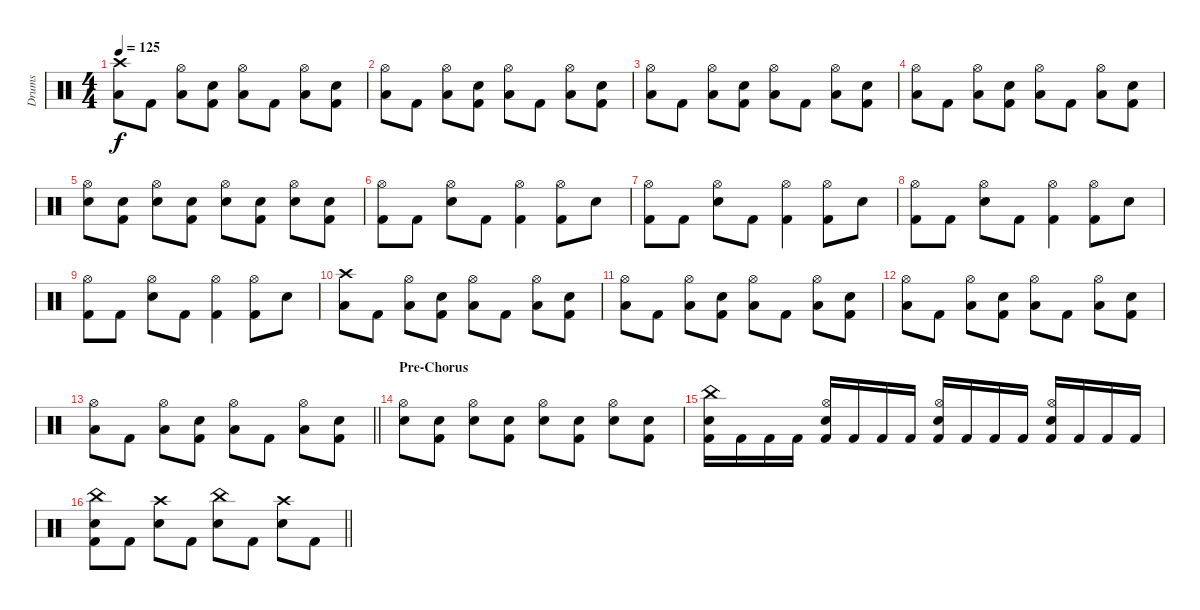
\track ("Drums" "Drums") {instrument percussion}
\staff {score}
\articulation defaults
\ts (4 4)
\tempo 125
\clef neutral
\ks c
("Crash high (hit)" "Low Tom (hit)").8{dy f} "Kick (hit) 2".8 ("Hi-Hat (open)" "Low Tom (hit)").8 ("Kick (hit) 2" "Electric Snare (hit)").8 ("Hi-Hat (open)" "Low Tom (hit)").8 "Kick (hit) 2".8 ("Hi-Hat (open)" "Low Tom (hit)").8 ("Kick (hit) 2" "Electric Snare (hit)").8 |
("Hi-Hat (open)" "Low Tom (hit)").8 "Kick (hit) 2".8 ("Hi-Hat (open)" "Low Tom (hit)").8 ("Kick (hit) 2" "Electric Snare (hit)").8 ("Hi-Hat (open)" "Low Tom (hit)").8 "Kick (hit) 2".8 ("Hi-Hat (open)" "Low Tom (hit)").8 ("Kick (hit) 2" "Electric Snare (hit)").8 |
("Hi-Hat (open)" "Low Tom (hit)").8 "Kick (hit) 2".8 ("Hi-Hat (open)" "Low Tom (hit)").8 ("Kick (hit) 2" "Electric Snare (hit)").8 ("Hi-Hat (open)" "Low Tom (hit)").8 "Kick (hit) 2".8 ("Hi-Hat (open)" "Low Tom (hit)").8 ("Kick (hit) 2" "Electric Snare (hit)").8 |
("Hi-Hat (open)" "Low Tom (hit)").8 "Kick (hit) 2".8 ("Hi-Hat (open)" "Low Tom (hit)").8 ("Kick (hit) 2" "Electric Snare (hit)").8 ("Hi-Hat (open)" "Low Tom (hit)").8 "Kick (hit) 2".8 ("Hi-Hat (open)" "Low Tom (hit)").8 ("Kick (hit) 2" "Electric Snare (hit)").8 |
("Hi-Hat (open)" "Electric Snare (hit)").8 ("Kick (hit) 2" "Electric Snare (hit)").8 ("Hi-Hat (open)" "Electric Snare (hit)").8 ("Kick (hit) 2" "Electric Snare (hit)").8 ("Hi-Hat (open)" "Electric Snare (hit)").8 ("Kick (hit) 2" "Electric Snare (hit)").8 ("Hi-Hat (open)" "Electric Snare (hit)").8 ("Kick (hit) 2" "Electric Snare (hit)").8 |
("Hi-Hat (open)" "Kick (hit) 2").8 "Kick (hit) 2".8 ("Hi-Hat (open)" "Electric Snare (hit)").8 "Kick (hit) 2".8 ("Hi-Hat (open)" "Kick (hit) 2").4 ("Hi-Hat (open)" "Kick (hit) 2").8 "Electric Snare (hit)".8 |
("Hi-Hat (open)" "Kick (hit) 2").8 "Kick (hit) 2".8 ("Hi-Hat (open)" "Electric Snare (hit)").8 "Kick (hit) 2".8 ("Hi-Hat (open)" "Kick (hit) 2").4 ("Hi-Hat (open)" "Kick (hit) 2").8 "Electric Snare (hit)".8 |
("Hi-Hat (open)" "Kick (hit) 2").8 "Kick (hit) 2".8 ("Hi-Hat (open)" "Electric Snare (hit)").8 "Kick (hit) 2".8 ("Hi-Hat (open)" "Kick (hit) 2").4 ("Hi-Hat (open)" "Kick (hit) 2").8 "Electric Snare (hit)".8 |
("Hi-Hat (open)" "Kick (hit) 2").8 "Kick (hit) 2".8 ("Hi-Hat (open)" "Electric Snare (hit)").8 "Kick (hit) 2".8 ("Hi-Hat (open)" "Kick (hit) 2").4 ("Hi-Hat (open)" "Kick (hit) 2").8 "Electric Snare (hit)".8 |
("Crash high (hit)" "Low Tom (hit)").8 "Kick (hit) 2".8 ("Hi-Hat (open)" "Low Tom (hit)").8 ("Kick (hit) 2" "Electric Snare (hit)").8 ("Hi-Hat (open)" "Low Tom (hit)").8 "Kick (hit) 2".8 ("Hi-Hat (open)" "Low Tom (hit)").8 ("Kick (hit) 2" "Electric Snare (hit)").8 |
("Hi-Hat (open)" "Low Tom (hit)").8 "Kick (hit) 2".8 ("Hi-Hat (open)" "Low Tom (hit)").8 ("Kick (hit) 2" "Electric Snare (hit)").8 ("Hi-Hat (open)" "Low Tom (hit)").8 "Kick (hit) 2".8 ("Hi-Hat (open)" "Low Tom (hit)").8 ("Kick (hit) 2" "Electric Snare (hit)").8 |
("Hi-Hat (open)" "Low Tom (hit)").8 "Kick (hit) 2".8 ("Hi-Hat (open)" "Low Tom (hit)").8 ("Kick (hit) 2" "Electric Snare (hit)").8 ("Hi-Hat (open)" "Low Tom (hit)").8 "Kick (hit) 2".8 ("Hi-Hat (open)" "Low Tom (hit)").8 ("Kick (hit) 2" "Electric Snare (hit)").8 |
\barLineRight lightlight
("Hi-Hat (open)" "Low Tom (hit)").8 "Kick (hit) 2".8 ("Hi-Hat (open)" "Low Tom (hit)").8 ("Kick (hit) 2" "Electric Snare (hit)").8 ("Hi-Hat (open)" "Low Tom (hit)").8 "Kick (hit) 2".8 ("Hi-Hat (open)" "Low Tom (hit)").8 ("Kick (hit) 2" "Electric Snare (hit)").8 |
\section ("" "Pre-Chorus")
("Hi-Hat (open)" "Electric Snare (hit)").8 ("Kick (hit) 2" "Electric Snare (hit)").8 ("Hi-Hat (open)" "Electric Snare (hit)").8 ("Kick (hit) 2" "Electric Snare (hit)").8 ("Hi-Hat (open)" "Electric Snare (hit)").8 ("Kick (hit) 2" "Electric Snare (hit)").8 ("Hi-Hat (open)" "Electric Snare (hit)").8 ("Kick (hit) 2" "Electric Snare (hit)").8 |
("China (hit)" "Kick (hit) 2" "Electric Snare (hit)").16 "Kick (hit) 2".16 "Kick (hit) 2".16 "Kick (hit) 2".16 ("Hi-Hat (open)" "Kick (hit) 2" "Electric Snare (hit)").16 "Kick (hit) 2".16 "Kick (hit) 2".16 "Kick (hit) 2".16 ("Hi-Hat (open)" "Kick (hit) 2" "Electric Snare (hit)").16 "Kick (hit) 2".16 "Kick (hit) 2".16 "Kick (hit) 2".16 ("Hi-Hat (open)" "Kick (hit) 2" "Electric Snare (hit)").16 "Kick (hit) 2".16 "Kick (hit) 2".16 "Kick (hit) 2".16 |
\barLineRight lightlight
("China (hit)" "Kick (hit) 2" "Electric Snare (hit)").8 "Kick (hit) 2".8 ("Crash high (hit)" "Electric Snare (hit)").8 "Kick (hit) 2".8 ("China (hit)" "Electric Snare (hit)").8 "Kick (hit) 2".8 ("Crash high (hit)" "Electric Snare (hit)").8 "Kick (hit) 2".8
